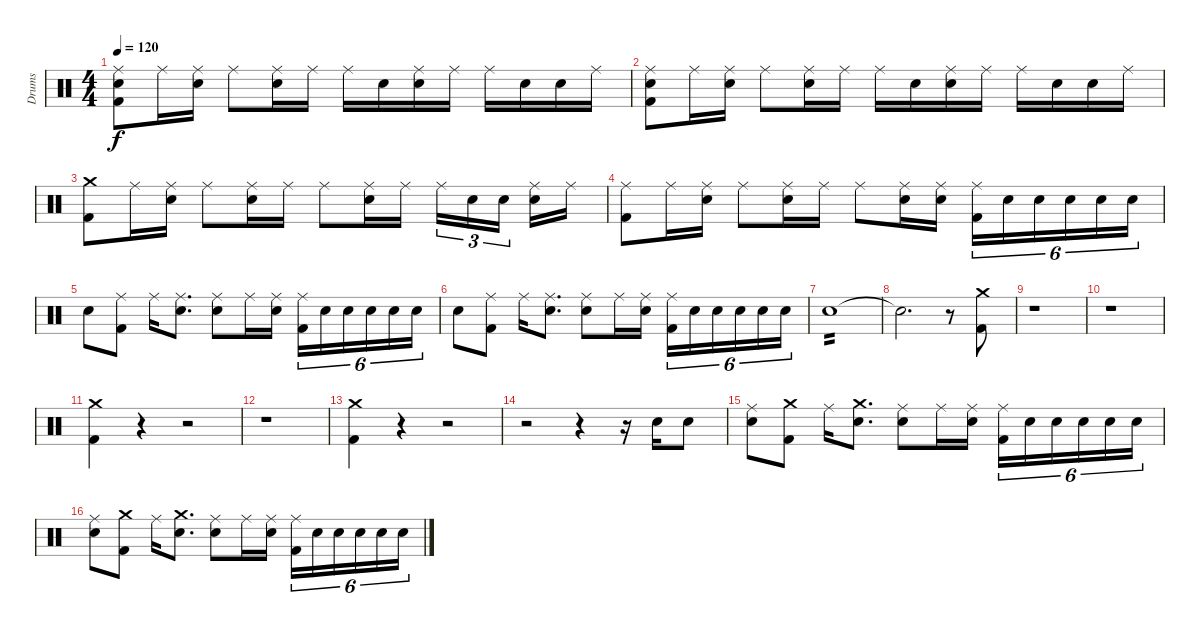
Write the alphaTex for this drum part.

\track ("Drums" "Drums") {instrument percussion}
\staff {score}
\articulation defaults
\ts (4 4)
\tempo 120
\clef neutral
\ks c
("Ride (middle)" "Kick (hit) 2" "Snare (hit) 2").8{dy f} "Ride (middle)".16 ("Ride (middle)" "Snare (hit) 2").16 "Ride (middle)".8 ("Ride (middle)" "Snare (hit) 2").16 "Ride (middle)".16 "Ride (middle)".16 "Snare (hit) 2".16 ("Ride (middle)" "Snare (hit) 2").16 "Ride (middle)".16 "Ride (middle)".16 "Snare (hit) 2".16 "Snare (hit) 2".16 "Ride (middle)".16 |
("Ride (middle)" "Kick (hit) 2" "Snare (hit) 2").8 "Ride (middle)".16 ("Ride (middle)" "Snare (hit) 2").16 "Ride (middle)".8 ("Ride (middle)" "Snare (hit) 2").16 "Ride (middle)".16 "Ride (middle)".16 "Snare (hit) 2".16 ("Ride (middle)" "Snare (hit) 2").16 "Ride (middle)".16 "Ride (middle)".16 "Snare (hit) 2".16 "Snare (hit) 2".16 "Ride (middle)".16 |
("Crash medium (hit)" "Kick (hit) 2").8 "Ride (middle)".16 ("Ride (middle)" "Snare (hit) 2").16 "Ride (middle)".8 ("Ride (middle)" "Snare (hit) 2").16 "Ride (middle)".16 "Ride (middle)".8 ("Ride (middle)" "Snare (hit) 2").16 "Ride (middle)".16 "Ride (middle)".16{tu (3 2)} "Snare (hit) 2".16{tu (3 2)} "Snare (hit) 2".16{tu (3 2)} ("Ride (middle)" "Snare (hit) 2").16 "Ride (middle)".16 |
("Ride (middle)" "Kick (hit) 2").8 "Ride (middle)".16 ("Ride (middle)" "Snare (hit) 2").16 "Ride (middle)".8 ("Ride (middle)" "Snare (hit) 2").16 "Ride (middle)".16 "Ride (middle)".8 ("Ride (middle)" "Snare (hit) 2").16 ("Ride (middle)" "Snare (hit) 2").16 ("Ride (middle)" "Kick (hit) 2").16{tu (6 4)} "Snare (hit) 2".16{tu (6 4)} "Snare (hit) 2".16{tu (6 4)} "Snare (hit) 2".16{tu (6 4)} "Snare (hit) 2".16{tu (6 4)} "Snare (hit) 2".16{tu (6 4)} |
"Snare (hit) 2".8 ("Ride (middle)" "Kick (hit) 2").8 "Ride (middle)".16 ("Ride (middle)" "Snare (hit) 2").8{d} ("Ride (middle)" "Snare (hit) 2").8 "Ride (middle)".16 ("Ride (middle)" "Snare (hit) 2").16 ("Ride (middle)" "Kick (hit) 2").16{tu (6 4)} "Snare (hit) 2".16{tu (6 4)} "Snare (hit) 2".16{tu (6 4)} "Snare (hit) 2".16{tu (6 4)} "Snare (hit) 2".16{tu (6 4)} "Snare (hit) 2".16{tu (6 4)} |
"Snare (hit) 2".8 ("Ride (middle)" "Kick (hit) 2").8 "Ride (middle)".16 ("Ride (middle)" "Snare (hit) 2").8{d} ("Ride (middle)" "Snare (hit) 2").8 "Ride (middle)".16 ("Ride (middle)" "Snare (hit) 2").16 ("Ride (middle)" "Kick (hit) 2").16{tu (6 4)} "Snare (hit) 2".16{tu (6 4)} "Snare (hit) 2".16{tu (6 4)} "Snare (hit) 2".16{tu (6 4)} "Snare (hit) 2".16{tu (6 4)} "Snare (hit) 2".16{tu (6 4)} |
"Snare (hit) 2".1{tp 2} |
"Snare (hit)"{t}.2{d} r.8 ("Crash medium (hit)" "Kick (hit) 2").8 |
r.1 |
r.1 |
("Crash medium (hit)" "Kick (hit) 2").4 r.4 r.2 |
r.1 |
("Crash medium (hit)" "Kick (hit) 2").4 r.4 r.2 |
r.2 r.4 r.16 "Snare (hit) 2".16 "Snare (hit) 2".8 |
("Ride (middle)" "Snare (hit) 2").8 ("Crash medium (hit)" "Kick (hit) 2").8 "Ride (middle)".16 ("Crash medium (hit)" "Snare (hit) 2").8{d} ("Ride (middle)" "Snare (hit) 2").8 "Ride (middle)".16 ("Ride (middle)" "Snare (hit) 2").16 ("Ride (middle)" "Kick (hit) 2").16{tu (6 4)} "Snare (hit) 2".16{tu (6 4)} "Snare (hit) 2".16{tu (6 4)} "Snare (hit) 2".16{tu (6 4)} "Snare (hit) 2".16{tu (6 4)} "Snare (hit) 2".16{tu (6 4)} |
("Ride (middle)" "Snare (hit) 2").8 ("Crash medium (hit)" "Kick (hit) 2").8 "Ride (middle)".16 ("Crash medium (hit)" "Snare (hit) 2").8{d} ("Ride (middle)" "Snare (hit) 2").8 "Ride (middle)".16 ("Ride (middle)" "Snare (hit) 2").16 ("Ride (middle)" "Kick (hit) 2").16{tu (6 4)} "Snare (hit) 2".16{tu (6 4)} "Snare (hit) 2".16{tu (6 4)} "Snare (hit) 2".16{tu (6 4)} "Snare (hit) 2".16{tu (6 4)} "Snare (hit) 2".16{tu (6 4)}
